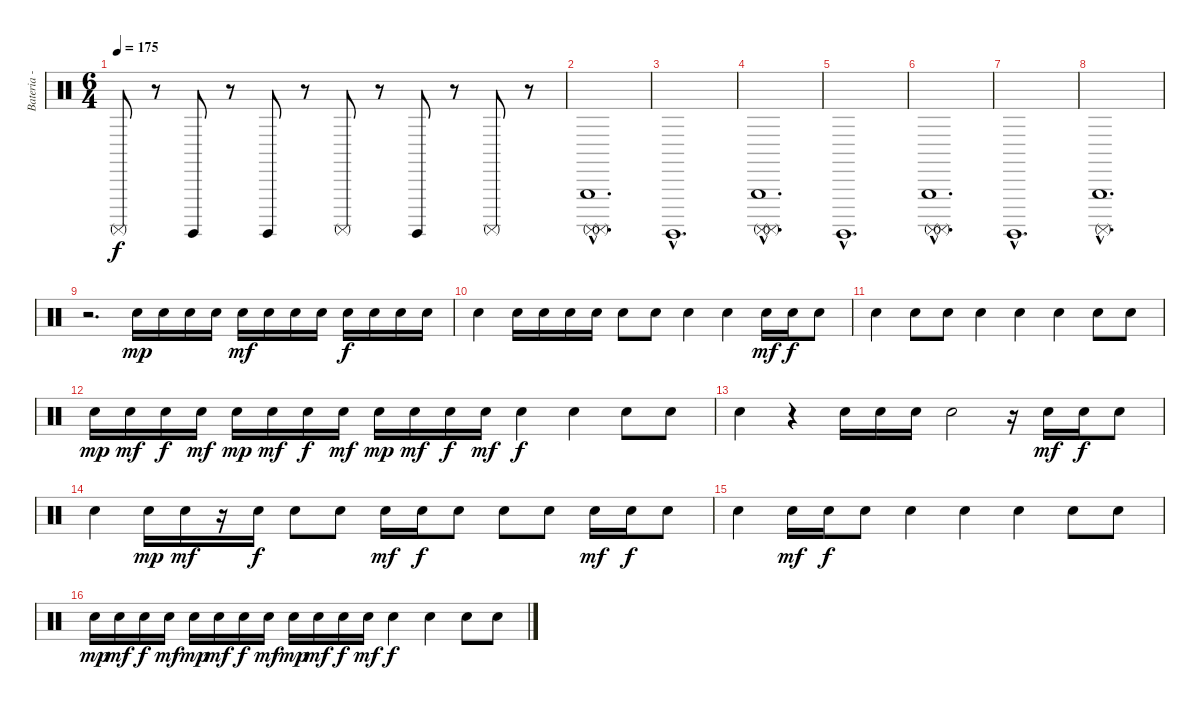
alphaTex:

\track ("Bateria - Drums" "Bateria - ") {instrument percussion}
\staff {score}
\articulation defaults
\ts (6 4)
\tempo 175
\clef neutral
\ks c "Surdo (mute)".8{dy f}
r.8 "Surdo (hit)".8 r.8 "Surdo (hit)".8 r.8 "Surdo (mute)".8 r.8 "Surdo (hit)".8 r.8 "Surdo (mute)".8 r.8 |
\section ("" "")
("Surdo (mute)"{hac} "Surdo (mute)"{hac} "Triangle (hit)"{hac}).1{d} |
"Surdo (hit)"{hac}.1{d} |
("Surdo (mute)"{hac} "Surdo (mute)"{hac} "Triangle (hit)"{hac}).1{d} |
"Surdo (hit)"{hac}.1{d} |
("Surdo (mute)"{hac} "Surdo (mute)"{hac} "Triangle (hit)"{hac}).1{d} |
"Surdo (hit)"{hac}.1{d} |
("Surdo (mute)"{hac} "Triangle (hit)"{hac}).1{d} |
\section ("" "")
r.2{d} "Snare (hit) 2".16{dy mp volume 6} "Snare (hit) 2".16 "Snare (hit) 2".16 "Snare (hit) 2".16 "Snare (hit) 2".16{dy mf} "Snare (hit) 2".16 "Snare (hit) 2".16 "Snare (hit) 2".16 "Snare (hit) 2".16{dy f} "Snare (hit) 2".16 "Snare (hit) 2".16 "Snare (hit) 2".16 |
"Snare (hit) 2".4 "Snare (hit) 2".16 "Snare (hit) 2".16 "Snare (hit) 2".16 "Snare (hit) 2".16 "Snare (hit) 2".8 "Snare (hit) 2".8 "Snare (hit) 2".4 "Snare (hit) 2".4 "Snare (hit) 2".16{dy mf} "Snare (hit) 2".16{dy f} "Snare (hit) 2".8 |
"Snare (hit) 2".4 "Snare (hit) 2".8 "Snare (hit) 2".8 "Snare (hit) 2".4 "Snare (hit) 2".4 "Snare (hit) 2".4 "Snare (hit) 2".8 "Snare (hit) 2".8 |
"Snare (hit) 2".16{dy mp} "Snare (hit) 2".16{dy mf} "Snare (hit) 2".16{dy f} "Snare (hit) 2".16{dy mf} "Snare (hit) 2".16{dy mp} "Snare (hit) 2".16{dy mf} "Snare (hit) 2".16{dy f} "Snare (hit) 2".16{dy mf} "Snare (hit) 2".16{dy mp} "Snare (hit) 2".16{dy mf} "Snare (hit) 2".16{dy f} "Snare (hit) 2".16{dy mf} "Snare (hit) 2".4{dy f} "Snare (hit) 2".4 "Snare (hit) 2".8 "Snare (hit) 2".8 |
"Snare (hit) 2".4 r.4 "Snare (hit) 2".16 "Snare (hit) 2".16 "Snare (hit) 2".16 "Snare (hit) 2".2 r.16 "Snare (hit) 2".16{dy mf} "Snare (hit) 2".16{dy f} "Snare (hit) 2".8 |
"Snare (hit) 2".4{volume 6} "Snare (hit) 2".16{dy mp} "Snare (hit) 2".16{dy mf} r.16 "Snare (hit) 2".16{dy f} "Snare (hit) 2".8 "Snare (hit) 2".8 "Snare (hit) 2".16{dy mf} "Snare (hit) 2".16{dy f} "Snare (hit) 2".8 "Snare (hit) 2".8 "Snare (hit) 2".8 "Snare (hit) 2".16{dy mf} "Snare (hit) 2".16{dy f} "Snare (hit) 2".8 |
"Snare (hit) 2".4 "Snare (hit) 2".16{dy mf} "Snare (hit) 2".16{dy f} "Snare (hit) 2".8 "Snare (hit) 2".4 "Snare (hit) 2".4 "Snare (hit) 2".4 "Snare (hit) 2".8 "Snare (hit) 2".8 |
"Snare (hit) 2".16{dy mp} "Snare (hit) 2".16{dy mf} "Snare (hit) 2".16{dy f} "Snare (hit) 2".16{dy mf} "Snare (hit) 2".16{dy mp} "Snare (hit) 2".16{dy mf} "Snare (hit) 2".16{dy f} "Snare (hit) 2".16{dy mf} "Snare (hit) 2".16{dy mp} "Snare (hit) 2".16{dy mf} "Snare (hit) 2".16{dy f} "Snare (hit) 2".16{dy mf} "Snare (hit) 2".4{dy f} "Snare (hit) 2".4 "Snare (hit) 2".8 "Snare (hit) 2".8
